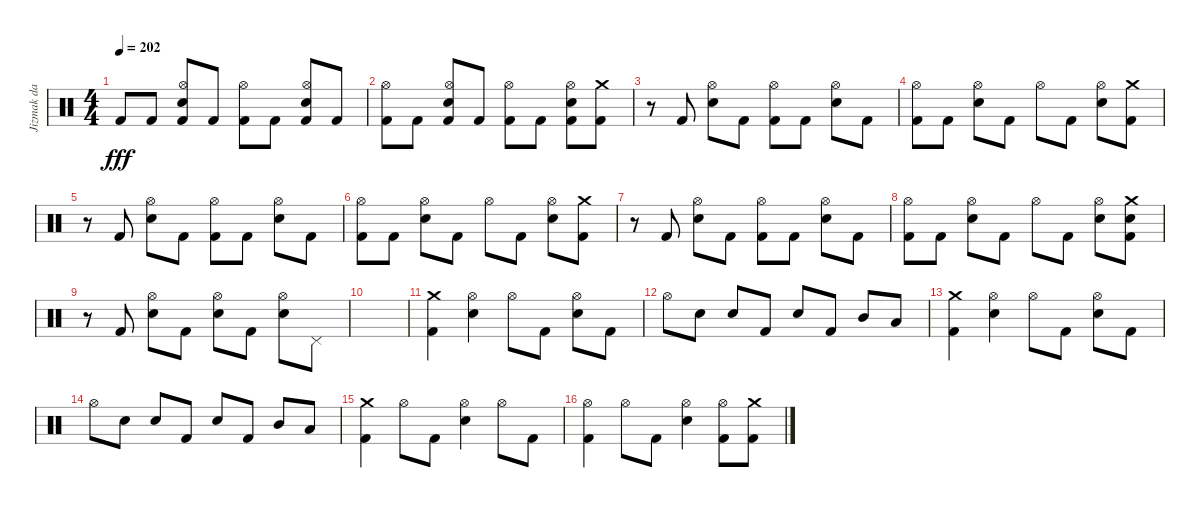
\track ("Jizmak da Gusha" "Jizmak da ") {instrument percussion}
\staff {score}
\articulation defaults
\ts (4 4)
\tempo 202
\clef neutral
\ks c "Kick (hit) 2".8{dy fff} "Kick (hit) 2".8
("Hi-Hat (open)" "Electric Snare (hit)" "Kick (hit) 2").8 "Kick (hit) 2".8 ("Hi-Hat (open)" "Kick (hit) 2").8 "Kick (hit) 2".8 ("Hi-Hat (open)" "Electric Snare (hit)" "Kick (hit) 2").8 "Kick (hit) 2".8 |
("Hi-Hat (open)" "Kick (hit) 2").8 "Kick (hit) 2".8 ("Hi-Hat (open)" "Electric Snare (hit)" "Kick (hit) 2").8 "Kick (hit) 2".8 ("Hi-Hat (open)" "Kick (hit) 2").8 "Kick (hit) 2".8 ("Hi-Hat (open)" "Electric Snare (hit)" "Kick (hit) 2").8 ("Crash medium (hit)" "Kick (hit) 2").8 |
r.8 "Kick (hit) 2".8 ("Hi-Hat (open)" "Electric Snare (hit)").8 "Kick (hit) 2".8 ("Hi-Hat (open)" "Kick (hit) 2").8 "Kick (hit) 2".8 ("Hi-Hat (open)" "Electric Snare (hit)").8 "Kick (hit) 2".8 |
("Hi-Hat (open)" "Kick (hit) 2").8 "Kick (hit) 2".8 ("Hi-Hat (open)" "Electric Snare (hit)").8 "Kick (hit) 2".8 "Hi-Hat (open)".8 "Kick (hit) 2".8 ("Hi-Hat (open)" "Electric Snare (hit)").8 ("Crash medium (hit)" "Kick (hit) 2").8 |
r.8 "Kick (hit) 2".8 ("Hi-Hat (open)" "Electric Snare (hit)").8 "Kick (hit) 2".8 ("Hi-Hat (open)" "Kick (hit) 2").8 "Kick (hit) 2".8 ("Hi-Hat (open)" "Electric Snare (hit)").8 "Kick (hit) 2".8 |
("Hi-Hat (open)" "Kick (hit) 2").8 "Kick (hit) 2".8 ("Hi-Hat (open)" "Electric Snare (hit)").8 "Kick (hit) 2".8 "Hi-Hat (open)".8 "Kick (hit) 2".8 ("Hi-Hat (open)" "Electric Snare (hit)").8 ("Crash medium (hit)" "Kick (hit) 2").8 |
r.8 "Kick (hit) 2".8 ("Hi-Hat (open)" "Electric Snare (hit)").8 "Kick (hit) 2".8 ("Hi-Hat (open)" "Kick (hit) 2").8 "Kick (hit) 2".8 ("Hi-Hat (open)" "Electric Snare (hit)").8 "Kick (hit) 2".8 |
("Hi-Hat (open)" "Kick (hit) 2").8 "Kick (hit) 2".8 ("Hi-Hat (open)" "Electric Snare (hit)").8 "Kick (hit) 2".8 "Hi-Hat (open)".8 "Kick (hit) 2".8 ("Hi-Hat (open)" "Electric Snare (hit)").8 ("Crash medium (hit)" "Electric Snare (hit)" "Kick (hit) 2").8 |
r.8 "Kick (hit) 2".8 ("Hi-Hat (open)" "Electric Snare (hit)").8 "Kick (hit) 2".8 ("Hi-Hat (open)" "Electric Snare (hit)").8 "Kick (hit) 2".8 ("Hi-Hat (open)" "Electric Snare (hit)").8 "Pedal Hi-Hat (hit)".8 |
|
("Crash medium (hit)" "Kick (hit) 2").4 ("Hi-Hat (open)" "Electric Snare (hit)").4 "Hi-Hat (open)".8 "Kick (hit) 2".8 ("Hi-Hat (open)" "Electric Snare (hit)").8 "Kick (hit) 2".8 |
"Hi-Hat (open)".8 "Electric Snare (hit)".8 "Electric Snare (hit)".8 "Kick (hit) 2".8 "Electric Snare (hit)".8 "Kick (hit) 2".8 "Mid Tom (hit)".8 "Low Tom (hit)".8 |
("Crash medium (hit)" "Kick (hit) 2").4 ("Hi-Hat (open)" "Electric Snare (hit)").4 "Hi-Hat (open)".8 "Kick (hit) 2".8 ("Hi-Hat (open)" "Electric Snare (hit)").8 "Kick (hit) 2".8 |
"Hi-Hat (open)".8 "Electric Snare (hit)".8 "Electric Snare (hit)".8 "Kick (hit) 2".8 "Electric Snare (hit)".8 "Kick (hit) 2".8 "Mid Tom (hit)".8 "Low Tom (hit)".8 |
("Crash medium (hit)" "Kick (hit) 2").4 "Hi-Hat (open)".8 "Kick (hit) 2".8 ("Hi-Hat (open)" "Electric Snare (hit)").4 "Hi-Hat (open)".8 "Kick (hit) 2".8 |
("Hi-Hat (open)" "Kick (hit) 2").4 "Hi-Hat (open)".8 "Kick (hit) 2".8 ("Hi-Hat (open)" "Electric Snare (hit)").4 ("Hi-Hat (open)" "Kick (hit) 2").8 ("Crash medium (hit)" "Kick (hit) 2").8
